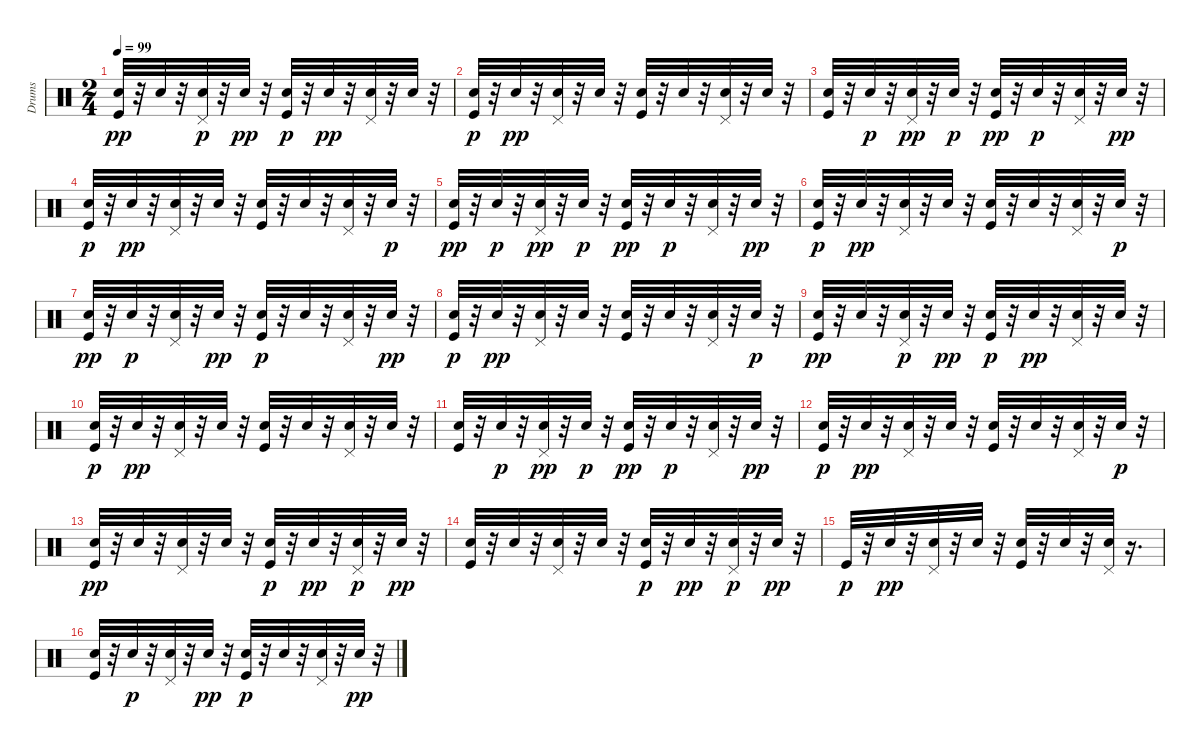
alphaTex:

\track ("Drums" "Drums") {instrument percussion}
\staff {score}
\articulation defaults
\ts (2 4)
\tempo 99
\clef neutral
\ks c
("Kick (hit)" "Hand Clap (hit)").32{dy pp} r.32 "Snare (hit) 2".32 r.32 ("Pedal Hi-Hat (hit)" "Snare (hit) 2").32{dy p} r.32 "Hand Clap (hit)".32{dy pp} r.32 ("Hand Clap (hit)" "Kick (hit)").32{dy p} r.32 "Snare (hit) 2".32{dy pp} r.32 ("Pedal Hi-Hat (hit)" "Hand Clap (hit)").32 r.32 "Snare (hit) 2".32 r.32 |
("Hand Clap (hit)" "Kick (hit)").32{dy p} r.32 "Snare (hit) 2".32{dy pp} r.32 ("Pedal Hi-Hat (hit)" "Snare (hit) 2").32 r.32 "Snare (hit) 2".32 r.32 ("Kick (hit)" "Hand Clap (hit)").32 r.32 "Snare (hit) 2".32 r.32 ("Hand Clap (hit)" "Pedal Hi-Hat (hit)").32 r.32 "Snare (hit) 2".32 r.32 |
("Kick (hit)" "Hand Clap (hit)").32 r.32 "Snare (hit) 2".32{dy p} r.32 ("Pedal Hi-Hat (hit)" "Snare (hit) 2").32{dy pp} r.32 "Hand Clap (hit)".32{dy p} r.32 ("Kick (hit)" "Snare (hit) 2").32{dy pp} r.32 "Snare (hit) 2".32{dy p} r.32 ("Pedal Hi-Hat (hit)" "Snare (hit) 2").32 r.32 "Snare (hit) 2".32{dy pp} r.32 |
("Hand Clap (hit)" "Kick (hit)").32{dy p} r.32 "Snare (hit) 2".32{dy pp} r.32 ("Pedal Hi-Hat (hit)" "Snare (hit) 2").32 r.32 "Hand Clap (hit)".32 r.32 ("Kick (hit)" "Hand Clap (hit)").32 r.32 "Snare (hit) 2".32 r.32 ("Pedal Hi-Hat (hit)" "Hand Clap (hit)").32 r.32 "Snare (hit) 2".32{dy p} r.32 |
("Kick (hit)" "Hand Clap (hit)").32{dy pp} r.32 "Snare (hit) 2".32{dy p} r.32 ("Pedal Hi-Hat (hit)" "Snare (hit) 2").32{dy pp} r.32 "Hand Clap (hit)".32{dy p} r.32 ("Kick (hit)" "Snare (hit) 2").32{dy pp} r.32 "Snare (hit) 2".32{dy p} r.32 ("Pedal Hi-Hat (hit)" "Snare (hit) 2").32 r.32 "Snare (hit) 2".32{dy pp} r.32 |
("Hand Clap (hit)" "Kick (hit)").32{dy p} r.32 "Snare (hit) 2".32{dy pp} r.32 ("Pedal Hi-Hat (hit)" "Snare (hit) 2").32 r.32 "Hand Clap (hit)".32 r.32 ("Kick (hit)" "Hand Clap (hit)").32 r.32 "Snare (hit) 2".32 r.32 ("Pedal Hi-Hat (hit)" "Hand Clap (hit)").32 r.32 "Snare (hit) 2".32{dy p} r.32 |
("Kick (hit)" "Hand Clap (hit)").32{dy pp} r.32 "Snare (hit) 2".32{dy p} r.32 ("Pedal Hi-Hat (hit)" "Snare (hit) 2").32 r.32 "Snare (hit) 2".32{dy pp} r.32 ("Hand Clap (hit)" "Kick (hit)").32{dy p} r.32 "Snare (hit) 2".32 r.32 ("Pedal Hi-Hat (hit)" "Snare (hit) 2").32 r.32 "Snare (hit) 2".32{dy pp} r.32 |
("Hand Clap (hit)" "Kick (hit)").32{dy p} r.32 "Snare (hit) 2".32{dy pp} r.32 ("Pedal Hi-Hat (hit)" "Snare (hit) 2").32 r.32 "Hand Clap (hit)".32 r.32 ("Kick (hit)" "Hand Clap (hit)").32 r.32 "Snare (hit) 2".32 r.32 ("Pedal Hi-Hat (hit)" "Hand Clap (hit)").32 r.32 "Snare (hit) 2".32{dy p} r.32 |
("Kick (hit)" "Hand Clap (hit)").32{dy pp} r.32 "Snare (hit) 2".32 r.32 ("Pedal Hi-Hat (hit)" "Snare (hit) 2").32{dy p} r.32 "Hand Clap (hit)".32{dy pp} r.32 ("Hand Clap (hit)" "Kick (hit)").32{dy p} r.32 "Snare (hit) 2".32{dy pp} r.32 ("Pedal Hi-Hat (hit)" "Hand Clap (hit)").32 r.32 "Snare (hit) 2".32 r.32 |
("Hand Clap (hit)" "Kick (hit)").32{dy p} r.32 "Snare (hit) 2".32{dy pp} r.32 ("Pedal Hi-Hat (hit)" "Snare (hit) 2").32 r.32 "Snare (hit) 2".32 r.32 ("Kick (hit)" "Hand Clap (hit)").32 r.32 "Snare (hit) 2".32 r.32 ("Hand Clap (hit)" "Pedal Hi-Hat (hit)").32 r.32 "Snare (hit) 2".32 r.32 |
("Kick (hit)" "Hand Clap (hit)").32 r.32 "Snare (hit) 2".32{dy p} r.32 ("Pedal Hi-Hat (hit)" "Snare (hit) 2").32{dy pp} r.32 "Hand Clap (hit)".32{dy p} r.32 ("Kick (hit)" "Snare (hit) 2").32{dy pp} r.32 "Snare (hit) 2".32{dy p} r.32 ("Pedal Hi-Hat (hit)" "Snare (hit) 2").32 r.32 "Snare (hit) 2".32{dy pp} r.32 |
("Hand Clap (hit)" "Kick (hit)").32{dy p} r.32 "Snare (hit) 2".32{dy pp} r.32 ("Pedal Hi-Hat (hit)" "Snare (hit) 2").32 r.32 "Hand Clap (hit)".32 r.32 ("Kick (hit)" "Hand Clap (hit)").32 r.32 "Snare (hit) 2".32 r.32 ("Pedal Hi-Hat (hit)" "Hand Clap (hit)").32 r.32 "Snare (hit) 2".32{dy p} r.32 |
("Kick (hit)" "Hand Clap (hit)").32{dy pp} r.32 "Snare (hit) 2".32 r.32 ("Pedal Hi-Hat (hit)" "Snare (hit) 2").32 r.32 "Hand Clap (hit)".32 r.32 ("Kick (hit)" "Snare (hit) 2").32{dy p} r.32 "Snare (hit) 2".32{dy pp} r.32 ("Pedal Hi-Hat (hit)" "Snare (hit) 2").32{dy p} r.32 "Snare (hit) 2".32{dy pp} r.32 |
("Kick (hit)" "Hand Clap (hit)").32 r.32 "Snare (hit) 2".32 r.32 ("Pedal Hi-Hat (hit)" "Snare (hit) 2").32 r.32 "Hand Clap (hit)".32 r.32 ("Kick (hit)" "Snare (hit) 2").32{dy p} r.32 "Snare (hit) 2".32{dy pp} r.32 ("Pedal Hi-Hat (hit)" "Snare (hit) 2").32{dy p} r.32 "Snare (hit) 2".32{dy pp} r.32 |
"Kick (hit)".32{dy p} r.32 "Snare (hit) 2".32{dy pp} r.32 ("Pedal Hi-Hat (hit)" "Snare (hit) 2").32 r.32 "Hand Clap (hit)".32 r.32 ("Kick (hit)" "Hand Clap (hit)").32 r.32 "Snare (hit) 2".32 r.32 ("Hand Clap (hit)" "Pedal Hi-Hat (hit)").32 r.16{d} |
("Kick (hit)" "Hand Clap (hit)").32 r.32 "Snare (hit) 2".32{dy p} r.32 ("Pedal Hi-Hat (hit)" "Snare (hit) 2").32 r.32 "Snare (hit) 2".32{dy pp} r.32 ("Hand Clap (hit)" "Kick (hit)").32{dy p} r.32 "Snare (hit) 2".32 r.32 ("Pedal Hi-Hat (hit)" "Snare (hit) 2").32 r.32 "Hand Clap (hit)".32{dy pp} r.32
